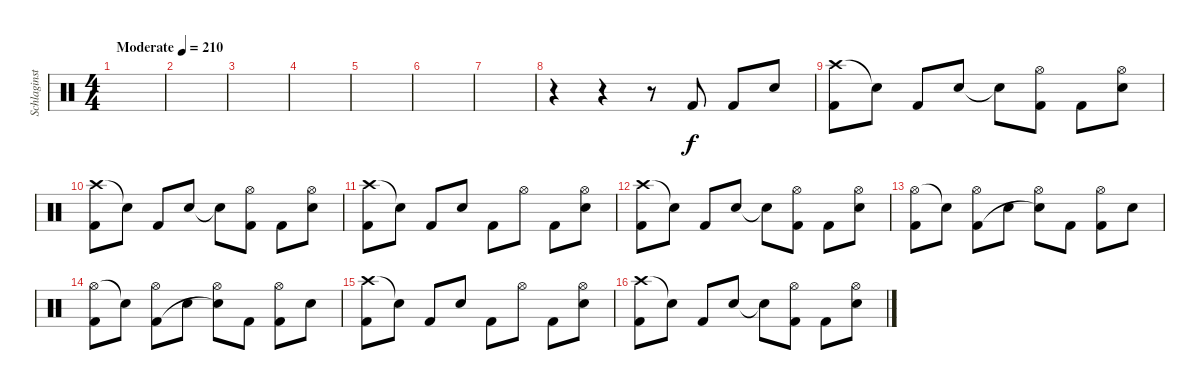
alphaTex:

\track ("Schlaginstrumente - Auswahl" "Schlaginst") {instrument percussion}
\staff {score}
\articulation defaults
\ts (4 4)
\tempo (210 "Moderate")
\clef neutral
\ks c
|
|
|
|
|
|
|
r.4 r.4 r.8 "Kick (hit) 2".8 "Kick (hit) 2".8 "Snare (hit) 2".8 |
("Crash high (hit)" "Kick (hit) 2").8 "Snare (hit)"{t}.8 "Kick (hit) 2".8 "Snare (hit) 2".8 "Snare (hit)"{t}.8 ("Hi-Hat (open)" "Kick (hit) 2").8 "Kick (hit) 2".8 ("Hi-Hat (open)" "Snare (hit) 2").8 |
("Crash high (hit)" "Kick (hit) 2").8 "Snare (hit)"{t}.8 "Kick (hit) 2".8 "Snare (hit) 2".8 "Snare (hit)"{t}.8 ("Hi-Hat (open)" "Kick (hit) 2").8 "Kick (hit) 2".8 ("Hi-Hat (open)" "Snare (hit) 2").8 |
("Crash high (hit)" "Kick (hit) 2").8 "Snare (hit)"{t}.8 "Kick (hit) 2".8 "Snare (hit) 2".8 "Kick (hit) 2".8 "Hi-Hat (open)".8 "Kick (hit) 2".8 ("Hi-Hat (open)" "Snare (hit) 2").8 |
("Crash high (hit)" "Kick (hit) 2").8 "Snare (hit)"{t}.8 "Kick (hit) 2".8 "Snare (hit) 2".8 "Snare (hit)"{t}.8 ("Hi-Hat (open)" "Kick (hit) 2").8 "Kick (hit) 2".8 ("Hi-Hat (open)" "Snare (hit) 2").8 |
("Hi-Hat (open)" "Kick (hit) 2").8 "Snare (hit)"{t}.8 ("Hi-Hat (open)" "Kick (hit) 2").8 "Snare (hit) 2".8 ("Hi-Hat (open)" "Snare (hit)"{t}).8 "Kick (hit) 2".8 ("Hi-Hat (open)" "Kick (hit) 2").8 "Snare (hit) 2".8 |
("Hi-Hat (open)" "Kick (hit) 2").8 "Snare (hit)"{t}.8 ("Hi-Hat (open)" "Kick (hit) 2").8 "Snare (hit) 2".8 ("Hi-Hat (open)" "Snare (hit)"{t}).8 "Kick (hit) 2".8 ("Hi-Hat (open)" "Kick (hit) 2").8 "Snare (hit) 2".8 |
("Crash high (hit)" "Kick (hit) 2").8 "Snare (hit)"{t}.8 "Kick (hit) 2".8 "Snare (hit) 2".8 "Kick (hit) 2".8 "Hi-Hat (open)".8 "Kick (hit) 2".8 ("Hi-Hat (open)" "Snare (hit) 2").8 |
("Crash high (hit)" "Kick (hit) 2").8 "Snare (hit)"{t}.8 "Kick (hit) 2".8 "Snare (hit) 2".8 "Snare (hit)"{t}.8 ("Hi-Hat (open)" "Kick (hit) 2").8 "Kick (hit) 2".8 ("Hi-Hat (open)" "Snare (hit) 2").8
